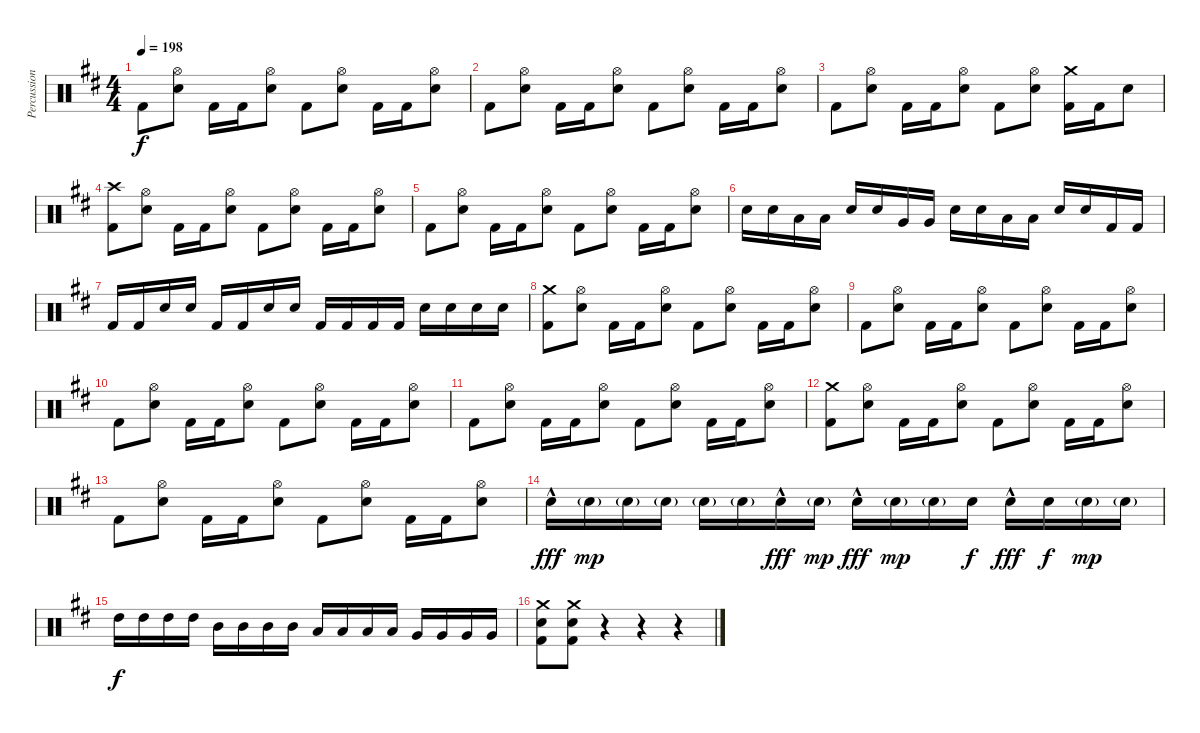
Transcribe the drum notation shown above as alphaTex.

\track ("Percussion" "Percussion") {instrument percussion}
\staff {score}
\articulation defaults
\ts (4 4)
\tempo 198
\clef neutral
\ks bminor "Kick (hit) 2".8{dy f}
("Hi-Hat (open)" "Snare (hit) 2").8 "Kick (hit) 2".16 "Kick (hit) 2".16 ("Hi-Hat (open)" "Snare (hit) 2").8 "Kick (hit) 2".8 ("Hi-Hat (open)" "Snare (hit) 2").8 "Kick (hit) 2".16 "Kick (hit) 2".16 ("Hi-Hat (open)" "Snare (hit) 2").8 |
"Kick (hit) 2".8 ("Hi-Hat (open)" "Snare (hit) 2").8 "Kick (hit) 2".16 "Kick (hit) 2".16 ("Hi-Hat (open)" "Snare (hit) 2").8 "Kick (hit) 2".8 ("Hi-Hat (open)" "Snare (hit) 2").8 "Kick (hit) 2".16 "Kick (hit) 2".16 ("Hi-Hat (open)" "Snare (hit) 2").8 |
"Kick (hit) 2".8 ("Hi-Hat (open)" "Snare (hit) 2").8 "Kick (hit) 2".16 "Kick (hit) 2".16 ("Hi-Hat (open)" "Snare (hit) 2").8 "Kick (hit) 2".8 ("Hi-Hat (open)" "Snare (hit) 2").8 ("Crash medium (hit)" "Kick (hit) 2").16 "Kick (hit) 2".16 "Snare (hit) 2".8 |
("Crash high (hit)" "Kick (hit) 2").8 ("Hi-Hat (open)" "Snare (hit) 2").8 "Kick (hit) 2".16 "Kick (hit) 2".16 ("Hi-Hat (open)" "Snare (hit) 2").8 "Kick (hit) 2".8 ("Hi-Hat (open)" "Snare (hit) 2").8 "Kick (hit) 2".16 "Kick (hit) 2".16 ("Hi-Hat (open)" "Snare (hit) 2").8 |
"Kick (hit) 2".8 ("Hi-Hat (open)" "Snare (hit) 2").8 "Kick (hit) 2".16 "Kick (hit) 2".16 ("Hi-Hat (open)" "Snare (hit) 2").8 "Kick (hit) 2".8 ("Hi-Hat (open)" "Snare (hit) 2").8 "Kick (hit) 2".16 "Kick (hit) 2".16 ("Hi-Hat (open)" "Snare (hit) 2").8 |
"Snare (hit) 2".16 "Snare (hit) 2".16 "Low Tom (hit)".16 "Low Tom (hit)".16 "Snare (hit) 2".16 "Snare (hit) 2".16 "Very Low Tom (hit)".16 "Very Low Tom (hit)".16 "Snare (hit) 2".16 "Snare (hit) 2".16 "Low Floor Tom (hit)".16 "Low Floor Tom (hit)".16 "Snare (hit) 2".16 "Snare (hit) 2".16 "Kick (hit) 2".16 "Kick (hit) 2".16 |
"Kick (hit) 2".16 "Kick (hit) 2".16 "Snare (hit) 2".16 "Snare (hit) 2".16 "Kick (hit) 2".16 "Kick (hit) 2".16 "Snare (hit) 2".16 "Snare (hit) 2".16 "Kick (hit) 2".16 "Kick (hit) 2".16 "Kick (hit) 2".16 "Kick (hit) 2".16 "Snare (hit) 2".16 "Snare (hit) 2".16 "Snare (hit) 2".16 "Snare (hit) 2".16 |
("Crash medium (hit)" "Kick (hit) 2").8 ("Hi-Hat (open)" "Snare (hit) 2").8 "Kick (hit) 2".16 "Kick (hit) 2".16 ("Hi-Hat (open)" "Snare (hit) 2").8 "Kick (hit) 2".8 ("Hi-Hat (open)" "Snare (hit) 2").8 "Kick (hit) 2".16 "Kick (hit) 2".16 ("Hi-Hat (open)" "Snare (hit) 2").8 |
"Kick (hit) 2".8 ("Hi-Hat (open)" "Snare (hit) 2").8 "Kick (hit) 2".16 "Kick (hit) 2".16 ("Hi-Hat (open)" "Snare (hit) 2").8 "Kick (hit) 2".8 ("Hi-Hat (open)" "Snare (hit) 2").8 "Kick (hit) 2".16 "Kick (hit) 2".16 ("Hi-Hat (open)" "Snare (hit) 2").8 |
"Kick (hit) 2".8 ("Hi-Hat (open)" "Snare (hit) 2").8 "Kick (hit) 2".16 "Kick (hit) 2".16 ("Hi-Hat (open)" "Snare (hit) 2").8 "Kick (hit) 2".8 ("Hi-Hat (open)" "Snare (hit) 2").8 "Kick (hit) 2".16 "Kick (hit) 2".16 ("Hi-Hat (open)" "Snare (hit) 2").8 |
"Kick (hit) 2".8 ("Hi-Hat (open)" "Snare (hit) 2").8 "Kick (hit) 2".16 "Kick (hit) 2".16 ("Hi-Hat (open)" "Snare (hit) 2").8 "Kick (hit) 2".8 ("Hi-Hat (open)" "Snare (hit) 2").8 "Kick (hit) 2".16 "Kick (hit) 2".16 ("Hi-Hat (open)" "Snare (hit) 2").8 |
("Crash medium (hit)" "Kick (hit) 2").8 ("Hi-Hat (open)" "Snare (hit) 2").8 "Kick (hit) 2".16 "Kick (hit) 2".16 ("Hi-Hat (open)" "Snare (hit) 2").8 "Kick (hit) 2".8 ("Hi-Hat (open)" "Snare (hit) 2").8 "Kick (hit) 2".16 "Kick (hit) 2".16 ("Hi-Hat (open)" "Snare (hit) 2").8 |
"Kick (hit) 2".8 ("Hi-Hat (open)" "Snare (hit) 2").8 "Kick (hit) 2".16 "Kick (hit) 2".16 ("Hi-Hat (open)" "Snare (hit) 2").8 "Kick (hit) 2".8 ("Hi-Hat (open)" "Snare (hit) 2").8 "Kick (hit) 2".16 "Kick (hit) 2".16 ("Hi-Hat (open)" "Snare (hit) 2").8 |
"Snare (hit) 2"{hac}.16{dy fff} "Snare (hit) 2"{g}.16{dy mp} "Snare (hit) 2"{g}.16 "Snare (hit) 2"{g}.16 "Snare (hit) 2"{g}.16 "Snare (hit) 2"{g}.16 "Snare (hit) 2"{hac}.16{dy fff} "Snare (hit) 2"{g}.16{dy mp} "Snare (hit) 2"{hac}.16{dy fff} "Snare (hit) 2"{g}.16{dy mp} "Snare (hit) 2"{g}.16 "Snare (hit) 2".16{dy f} "Snare (hit) 2"{hac}.16{dy fff} "Snare (hit) 2".16{dy f} "Snare (hit) 2"{g}.16{dy mp} "Snare (hit) 2"{g}.16 |
"High Tom (hit)".16{dy f} "High Tom (hit)".16 "High Tom (hit)".16 "High Tom (hit)".16 "Mid Tom (hit)".16 "Mid Tom (hit)".16 "Mid Tom (hit)".16 "Mid Tom (hit)".16 "Low Tom (hit)".16 "Low Tom (hit)".16 "Low Tom (hit)".16 "Low Tom (hit)".16 "Very Low Tom (hit)".16 "Very Low Tom (hit)".16 "Very Low Tom (hit)".16 "Very Low Tom (hit)".16 |
("Crash medium (hit)" "Snare (hit) 2" "Kick (hit) 2").8 ("Crash medium (hit)" "Snare (hit) 2" "Kick (hit) 2").8 r.4 r.4 r.4
